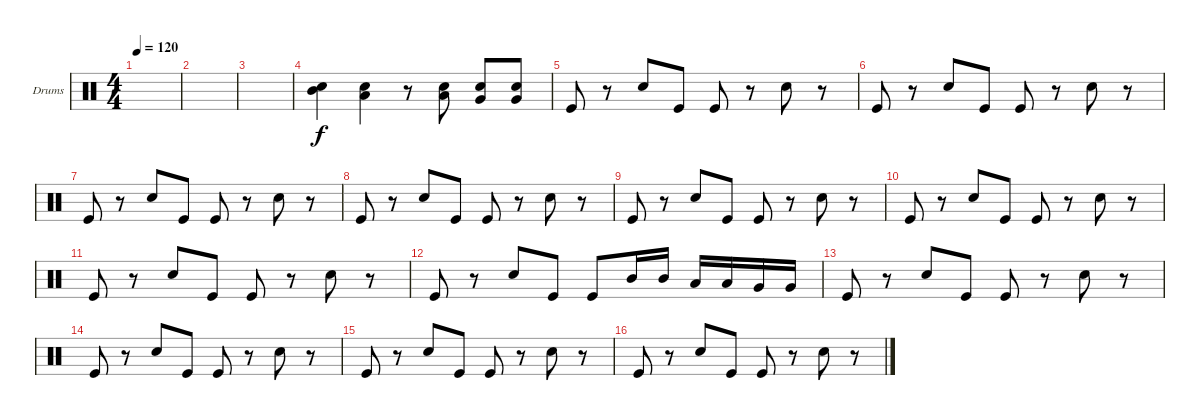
\defaultSystemsLayout 4
\bracketExtendMode groupsimilarinstruments
\firstSystemTrackNameOrientation horizontal
\otherSystemsTrackNameOrientation horizontal
\track ("Drumkit" "Drums") {instrument percussion}
\staff {score}
\articulation defaults
\ts (4 4)
\tempo 120
\clef neutral
\ks c
|
|
|
("Mid Tom (hit)" "Snare (hit) 2").4 ("Low Tom (hit)" "Snare (hit) 2").4 r.8 ("Low Tom (hit)" "Snare (hit) 2").8 ("Very Low Tom (hit)" "Snare (hit) 2").8 ("Very Low Tom (hit)" "Snare (hit) 2").8 |
"Kick (hit)".8 r.8 "Snare (hit) 2".8 "Kick (hit)".8 "Kick (hit)".8 r.8 "Snare (hit) 2".8 r.8 |
"Kick (hit)".8 r.8 "Snare (hit) 2".8 "Kick (hit)".8 "Kick (hit)".8 r.8 "Snare (hit) 2".8 r.8 |
"Kick (hit)".8 r.8 "Snare (hit) 2".8 "Kick (hit)".8 "Kick (hit)".8 r.8 "Snare (hit) 2".8 r.8 |
"Kick (hit)".8 r.8 "Snare (hit) 2".8 "Kick (hit)".8 "Kick (hit)".8 r.8 "Snare (hit) 2".8 r.8 |
"Kick (hit)".8 r.8 "Snare (hit) 2".8 "Kick (hit)".8 "Kick (hit)".8 r.8 "Snare (hit) 2".8 r.8 |
"Kick (hit)".8 r.8 "Snare (hit) 2".8 "Kick (hit)".8 "Kick (hit)".8 r.8 "Snare (hit) 2".8 r.8 |
"Kick (hit)".8 r.8 "Snare (hit) 2".8 "Kick (hit)".8 "Kick (hit)".8 r.8 "Snare (hit) 2".8 r.8 |
"Kick (hit)".8 r.8 "Snare (hit) 2".8 "Kick (hit)".8 "Kick (hit)".8 "Mid Tom (hit)".16 "Mid Tom (hit)".16 "Low Tom (hit)".16 "Low Tom (hit)".16 "Very Low Tom (hit)".16 "Very Low Tom (hit)".16 |
"Kick (hit)".8 r.8 "Snare (hit) 2".8 "Kick (hit)".8 "Kick (hit)".8 r.8 "Snare (hit) 2".8 r.8 |
"Kick (hit)".8 r.8 "Snare (hit) 2".8 "Kick (hit)".8 "Kick (hit)".8 r.8 "Snare (hit) 2".8 r.8 |
"Kick (hit)".8 r.8 "Snare (hit) 2".8 "Kick (hit)".8 "Kick (hit)".8 r.8 "Snare (hit) 2".8 r.8 |
"Kick (hit)".8 r.8 "Snare (hit) 2".8 "Kick (hit)".8 "Kick (hit)".8 r.8 "Snare (hit) 2".8 r.8
